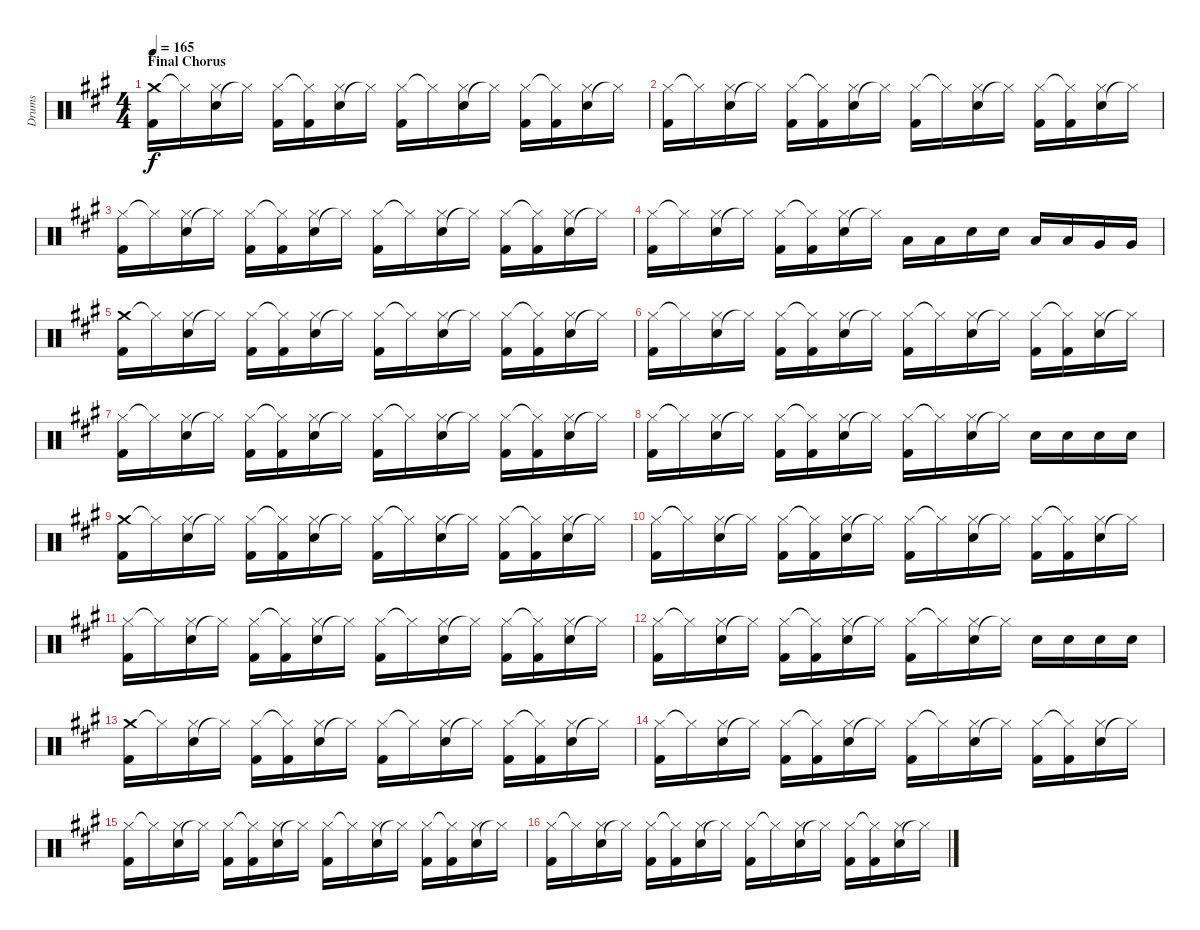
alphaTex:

\track ("Drums" "Drums") {instrument percussion}
\staff {score}
\articulation defaults
\ts (4 4)
\section ("" "Final Chorus")
\tempo 165
\clef neutral
\ks a
("Crash medium (hit)" "Kick (hit) 2").16{dy f} "Hi-Hat (closed)"{t}.16 ("Electric Snare (hit)" "Hi-Hat (closed)").16 "Hi-Hat (closed)"{t}.16 ("Hi-Hat (closed)" "Kick (hit) 2").16 ("Hi-Hat (closed)"{t} "Kick (hit) 2").16 ("Electric Snare (hit)" "Hi-Hat (closed)").16 "Hi-Hat (closed)"{t}.16 ("Hi-Hat (closed)" "Kick (hit) 2").16 "Hi-Hat (closed)"{t}.16 ("Electric Snare (hit)" "Hi-Hat (closed)").16 "Hi-Hat (closed)"{t}.16 ("Hi-Hat (closed)" "Kick (hit) 2").16 ("Hi-Hat (closed)"{t} "Kick (hit) 2").16 ("Electric Snare (hit)" "Hi-Hat (closed)").16 "Hi-Hat (closed)"{t}.16 |
("Hi-Hat (closed)" "Kick (hit) 2").16 "Hi-Hat (closed)"{t}.16 ("Electric Snare (hit)" "Hi-Hat (closed)").16 "Hi-Hat (closed)"{t}.16 ("Hi-Hat (closed)" "Kick (hit) 2").16 ("Hi-Hat (closed)"{t} "Kick (hit) 2").16 ("Electric Snare (hit)" "Hi-Hat (closed)").16 "Hi-Hat (closed)"{t}.16 ("Hi-Hat (closed)" "Kick (hit) 2").16 "Hi-Hat (closed)"{t}.16 ("Electric Snare (hit)" "Hi-Hat (closed)").16 "Hi-Hat (closed)"{t}.16 ("Hi-Hat (closed)" "Kick (hit) 2").16 ("Hi-Hat (closed)"{t} "Kick (hit) 2").16 ("Electric Snare (hit)" "Hi-Hat (closed)").16 "Hi-Hat (closed)"{t}.16 |
("Hi-Hat (closed)" "Kick (hit) 2").16 "Hi-Hat (closed)"{t}.16 ("Electric Snare (hit)" "Hi-Hat (closed)").16 "Hi-Hat (closed)"{t}.16 ("Hi-Hat (closed)" "Kick (hit) 2").16 ("Hi-Hat (closed)"{t} "Kick (hit) 2").16 ("Electric Snare (hit)" "Hi-Hat (closed)").16 "Hi-Hat (closed)"{t}.16 ("Hi-Hat (closed)" "Kick (hit) 2").16 "Hi-Hat (closed)"{t}.16 ("Electric Snare (hit)" "Hi-Hat (closed)").16 "Hi-Hat (closed)"{t}.16 ("Hi-Hat (closed)" "Kick (hit) 2").16 ("Hi-Hat (closed)"{t} "Kick (hit) 2").16 ("Electric Snare (hit)" "Hi-Hat (closed)").16 "Hi-Hat (closed)"{t}.16 |
("Hi-Hat (closed)" "Kick (hit) 2").16 "Hi-Hat (closed)"{t}.16 ("Electric Snare (hit)" "Hi-Hat (closed)").16 "Hi-Hat (closed)"{t}.16 ("Hi-Hat (closed)" "Kick (hit) 2").16 ("Hi-Hat (closed)"{t} "Kick (hit) 2").16 ("Electric Snare (hit)" "Hi-Hat (closed)").16 "Hi-Hat (closed)"{t}.16 "Low Tom (hit)".16 "Low Tom (hit)".16 "Electric Snare (hit)".16 "Electric Snare (hit)".16 "Low Tom (hit)".16 "Low Tom (hit)".16 "Very Low Tom (hit)".16 "Very Low Tom (hit)".16 |
("Crash medium (hit)" "Kick (hit) 2").16 "Hi-Hat (closed)"{t}.16 ("Electric Snare (hit)" "Hi-Hat (closed)").16 "Hi-Hat (closed)"{t}.16 ("Hi-Hat (closed)" "Kick (hit) 2").16 ("Hi-Hat (closed)"{t} "Kick (hit) 2").16 ("Electric Snare (hit)" "Hi-Hat (closed)").16 "Hi-Hat (closed)"{t}.16 ("Hi-Hat (closed)" "Kick (hit) 2").16 "Hi-Hat (closed)"{t}.16 ("Electric Snare (hit)" "Hi-Hat (closed)").16 "Hi-Hat (closed)"{t}.16 ("Hi-Hat (closed)" "Kick (hit) 2").16 ("Hi-Hat (closed)"{t} "Kick (hit) 2").16 ("Electric Snare (hit)" "Hi-Hat (closed)").16 "Hi-Hat (closed)"{t}.16 |
("Hi-Hat (closed)" "Kick (hit) 2").16 "Hi-Hat (closed)"{t}.16 ("Electric Snare (hit)" "Hi-Hat (closed)").16 "Hi-Hat (closed)"{t}.16 ("Hi-Hat (closed)" "Kick (hit) 2").16 ("Hi-Hat (closed)"{t} "Kick (hit) 2").16 ("Electric Snare (hit)" "Hi-Hat (closed)").16 "Hi-Hat (closed)"{t}.16 ("Hi-Hat (closed)" "Kick (hit) 2").16 "Hi-Hat (closed)"{t}.16 ("Electric Snare (hit)" "Hi-Hat (closed)").16 "Hi-Hat (closed)"{t}.16 ("Hi-Hat (closed)" "Kick (hit) 2").16 ("Hi-Hat (closed)"{t} "Kick (hit) 2").16 ("Electric Snare (hit)" "Hi-Hat (closed)").16 "Hi-Hat (closed)"{t}.16 |
("Hi-Hat (closed)" "Kick (hit) 2").16 "Hi-Hat (closed)"{t}.16 ("Electric Snare (hit)" "Hi-Hat (closed)").16 "Hi-Hat (closed)"{t}.16 ("Hi-Hat (closed)" "Kick (hit) 2").16 ("Hi-Hat (closed)"{t} "Kick (hit) 2").16 ("Electric Snare (hit)" "Hi-Hat (closed)").16 "Hi-Hat (closed)"{t}.16 ("Hi-Hat (closed)" "Kick (hit) 2").16 "Hi-Hat (closed)"{t}.16 ("Electric Snare (hit)" "Hi-Hat (closed)").16 "Hi-Hat (closed)"{t}.16 ("Hi-Hat (closed)" "Kick (hit) 2").16 ("Hi-Hat (closed)"{t} "Kick (hit) 2").16 ("Electric Snare (hit)" "Hi-Hat (closed)").16 "Hi-Hat (closed)"{t}.16 |
("Hi-Hat (closed)" "Kick (hit) 2").16 "Hi-Hat (closed)"{t}.16 ("Electric Snare (hit)" "Hi-Hat (closed)").16 "Hi-Hat (closed)"{t}.16 ("Hi-Hat (closed)" "Kick (hit) 2").16 ("Hi-Hat (closed)"{t} "Kick (hit) 2").16 ("Electric Snare (hit)" "Hi-Hat (closed)").16 "Hi-Hat (closed)"{t}.16 ("Hi-Hat (closed)" "Kick (hit) 2").16 "Hi-Hat (closed)"{t}.16 ("Electric Snare (hit)" "Hi-Hat (closed)").16 "Hi-Hat (closed)"{t}.16 "Electric Snare (hit)".16 "Electric Snare (hit)".16 "Electric Snare (hit)".16 "Electric Snare (hit)".16 |
("Crash medium (hit)" "Kick (hit) 2").16 "Hi-Hat (closed)"{t}.16 ("Electric Snare (hit)" "Hi-Hat (closed)").16 "Hi-Hat (closed)"{t}.16 ("Hi-Hat (closed)" "Kick (hit) 2").16 ("Hi-Hat (closed)"{t} "Kick (hit) 2").16 ("Electric Snare (hit)" "Hi-Hat (closed)").16 "Hi-Hat (closed)"{t}.16 ("Hi-Hat (closed)" "Kick (hit) 2").16 "Hi-Hat (closed)"{t}.16 ("Electric Snare (hit)" "Hi-Hat (closed)").16 "Hi-Hat (closed)"{t}.16 ("Hi-Hat (closed)" "Kick (hit) 2").16 ("Hi-Hat (closed)"{t} "Kick (hit) 2").16 ("Electric Snare (hit)" "Hi-Hat (closed)").16 "Hi-Hat (closed)"{t}.16 |
("Hi-Hat (closed)" "Kick (hit) 2").16 "Hi-Hat (closed)"{t}.16 ("Electric Snare (hit)" "Hi-Hat (closed)").16 "Hi-Hat (closed)"{t}.16 ("Hi-Hat (closed)" "Kick (hit) 2").16 ("Hi-Hat (closed)"{t} "Kick (hit) 2").16 ("Electric Snare (hit)" "Hi-Hat (closed)").16 "Hi-Hat (closed)"{t}.16 ("Hi-Hat (closed)" "Kick (hit) 2").16 "Hi-Hat (closed)"{t}.16 ("Electric Snare (hit)" "Hi-Hat (closed)").16 "Hi-Hat (closed)"{t}.16 ("Hi-Hat (closed)" "Kick (hit) 2").16 ("Hi-Hat (closed)"{t} "Kick (hit) 2").16 ("Electric Snare (hit)" "Hi-Hat (closed)").16 "Hi-Hat (closed)"{t}.16 |
("Hi-Hat (closed)" "Kick (hit) 2").16 "Hi-Hat (closed)"{t}.16 ("Electric Snare (hit)" "Hi-Hat (closed)").16 "Hi-Hat (closed)"{t}.16 ("Hi-Hat (closed)" "Kick (hit) 2").16 ("Hi-Hat (closed)"{t} "Kick (hit) 2").16 ("Electric Snare (hit)" "Hi-Hat (closed)").16 "Hi-Hat (closed)"{t}.16 ("Hi-Hat (closed)" "Kick (hit) 2").16 "Hi-Hat (closed)"{t}.16 ("Electric Snare (hit)" "Hi-Hat (closed)").16 "Hi-Hat (closed)"{t}.16 ("Hi-Hat (closed)" "Kick (hit) 2").16 ("Hi-Hat (closed)"{t} "Kick (hit) 2").16 ("Electric Snare (hit)" "Hi-Hat (closed)").16 "Hi-Hat (closed)"{t}.16 |
("Hi-Hat (closed)" "Kick (hit) 2").16 "Hi-Hat (closed)"{t}.16 ("Electric Snare (hit)" "Hi-Hat (closed)").16 "Hi-Hat (closed)"{t}.16 ("Hi-Hat (closed)" "Kick (hit) 2").16 ("Hi-Hat (closed)"{t} "Kick (hit) 2").16 ("Electric Snare (hit)" "Hi-Hat (closed)").16 "Hi-Hat (closed)"{t}.16 ("Hi-Hat (closed)" "Kick (hit) 2").16 "Hi-Hat (closed)"{t}.16 ("Electric Snare (hit)" "Hi-Hat (closed)").16 "Hi-Hat (closed)"{t}.16 "Electric Snare (hit)".16 "Electric Snare (hit)".16 "Electric Snare (hit)".16 "Electric Snare (hit)".16 |
("Crash medium (hit)" "Kick (hit) 2").16 "Hi-Hat (closed)"{t}.16 ("Electric Snare (hit)" "Hi-Hat (closed)").16 "Hi-Hat (closed)"{t}.16 ("Hi-Hat (closed)" "Kick (hit) 2").16 ("Hi-Hat (closed)"{t} "Kick (hit) 2").16 ("Electric Snare (hit)" "Hi-Hat (closed)").16 "Hi-Hat (closed)"{t}.16 ("Hi-Hat (closed)" "Kick (hit) 2").16 "Hi-Hat (closed)"{t}.16 ("Electric Snare (hit)" "Hi-Hat (closed)").16 "Hi-Hat (closed)"{t}.16 ("Hi-Hat (closed)" "Kick (hit) 2").16 ("Hi-Hat (closed)"{t} "Kick (hit) 2").16 ("Electric Snare (hit)" "Hi-Hat (closed)").16 "Hi-Hat (closed)"{t}.16 |
("Hi-Hat (closed)" "Kick (hit) 2").16 "Hi-Hat (closed)"{t}.16 ("Electric Snare (hit)" "Hi-Hat (closed)").16 "Hi-Hat (closed)"{t}.16 ("Hi-Hat (closed)" "Kick (hit) 2").16 ("Hi-Hat (closed)"{t} "Kick (hit) 2").16 ("Electric Snare (hit)" "Hi-Hat (closed)").16 "Hi-Hat (closed)"{t}.16 ("Hi-Hat (closed)" "Kick (hit) 2").16 "Hi-Hat (closed)"{t}.16 ("Electric Snare (hit)" "Hi-Hat (closed)").16 "Hi-Hat (closed)"{t}.16 ("Hi-Hat (closed)" "Kick (hit) 2").16 ("Hi-Hat (closed)"{t} "Kick (hit) 2").16 ("Electric Snare (hit)" "Hi-Hat (closed)").16 "Hi-Hat (closed)"{t}.16 |
("Hi-Hat (closed)" "Kick (hit) 2").16 "Hi-Hat (closed)"{t}.16 ("Electric Snare (hit)" "Hi-Hat (closed)").16 "Hi-Hat (closed)"{t}.16 ("Hi-Hat (closed)" "Kick (hit) 2").16 ("Hi-Hat (closed)"{t} "Kick (hit) 2").16 ("Electric Snare (hit)" "Hi-Hat (closed)").16 "Hi-Hat (closed)"{t}.16 ("Hi-Hat (closed)" "Kick (hit) 2").16 "Hi-Hat (closed)"{t}.16 ("Electric Snare (hit)" "Hi-Hat (closed)").16 "Hi-Hat (closed)"{t}.16 ("Hi-Hat (closed)" "Kick (hit) 2").16 ("Hi-Hat (closed)"{t} "Kick (hit) 2").16 ("Electric Snare (hit)" "Hi-Hat (closed)").16 "Hi-Hat (closed)"{t}.16 |
("Hi-Hat (closed)" "Kick (hit) 2").16 "Hi-Hat (closed)"{t}.16 ("Electric Snare (hit)" "Hi-Hat (closed)").16 "Hi-Hat (closed)"{t}.16 ("Hi-Hat (closed)" "Kick (hit) 2").16 ("Hi-Hat (closed)"{t} "Kick (hit) 2").16 ("Electric Snare (hit)" "Hi-Hat (closed)").16 "Hi-Hat (closed)"{t}.16 ("Hi-Hat (closed)" "Kick (hit) 2").16 "Hi-Hat (closed)"{t}.16 ("Electric Snare (hit)" "Hi-Hat (closed)").16 "Hi-Hat (closed)"{t}.16 ("Hi-Hat (closed)" "Kick (hit) 2").16 ("Hi-Hat (closed)"{t} "Kick (hit) 2").16 ("Electric Snare (hit)" "Hi-Hat (closed)").16 "Hi-Hat (closed)"{t}.16
